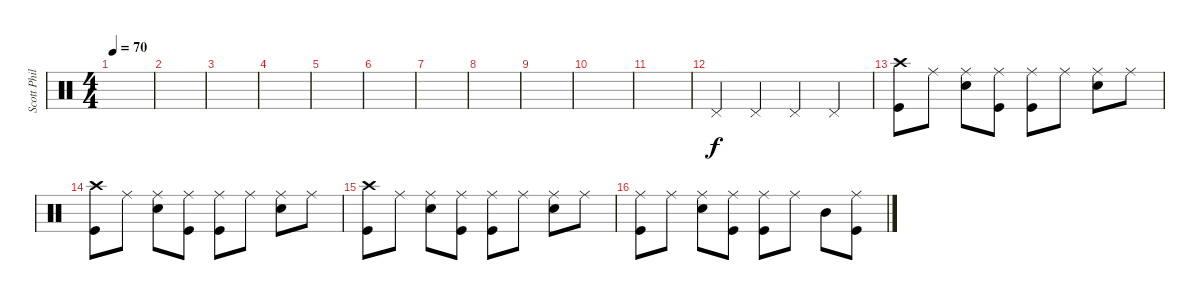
\track ("Scott Phillips" "Scott Phil") {instrument percussion}
\staff {score}
\articulation defaults
\ts (4 4)
\tempo 70
\clef neutral
\ks c
|
|
|
|
|
|
|
|
|
|
|
"Pedal Hi-Hat (hit)".4 "Pedal Hi-Hat (hit)".4 "Pedal Hi-Hat (hit)".4 "Pedal Hi-Hat (hit)".4 |
("Crash high (hit)" "Kick (hit)").8 "Ride (middle)".8 ("Ride (middle)" "Snare (hit) 2").8 ("Ride (middle)" "Kick (hit)").8 ("Ride (middle)" "Kick (hit)").8 "Ride (middle)".8 ("Ride (middle)" "Snare (hit) 2").8 "Ride (middle)".8 |
("Crash high (hit)" "Kick (hit)").8 "Ride (middle)".8 ("Ride (middle)" "Snare (hit) 2").8 ("Ride (middle)" "Kick (hit)").8 ("Ride (middle)" "Kick (hit)").8 "Ride (middle)".8 ("Ride (middle)" "Snare (hit) 2").8 "Ride (middle)".8 |
("Crash high (hit)" "Kick (hit)").8 "Ride (middle)".8 ("Ride (middle)" "Snare (hit) 2").8 ("Ride (middle)" "Kick (hit)").8 ("Ride (middle)" "Kick (hit)").8 "Ride (middle)".8 ("Ride (middle)" "Snare (hit) 2").8 "Ride (middle)".8 |
("Ride (middle)" "Kick (hit)").8 "Ride (middle)".8 ("Ride (middle)" "Snare (hit) 2").8 ("Ride (middle)" "Kick (hit)").8 ("Ride (middle)" "Kick (hit)").8 "Ride (middle)".8 "Mid Tom (hit)".8 ("Ride (middle)" "Kick (hit)").8
